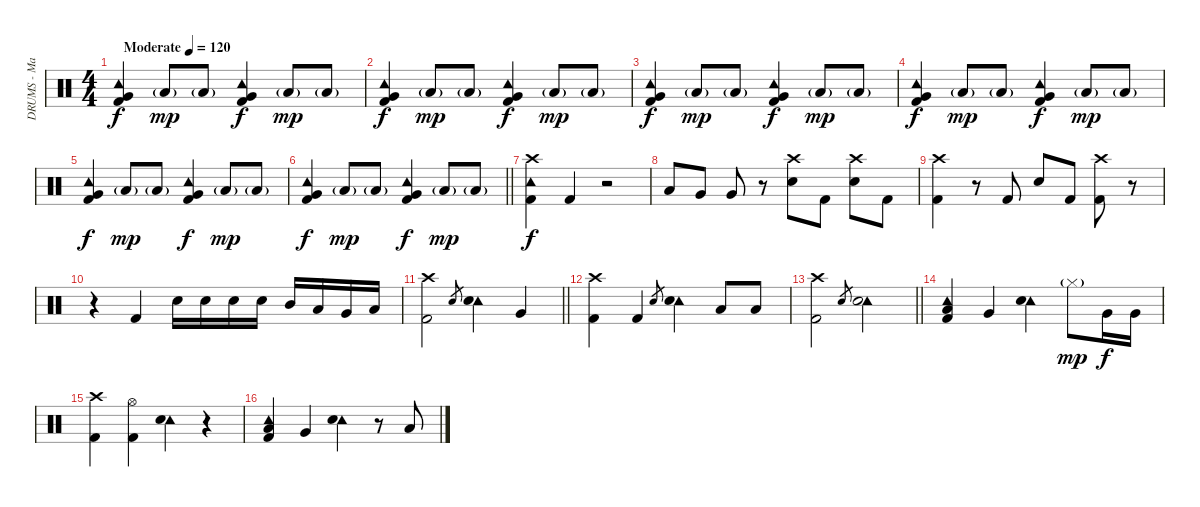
\track ("DRUMS - Mario Duplantier" "DRUMS - Ma") {instrument percussion}
\staff {score}
\articulation defaults
\ts (4 4)
\tempo (120 "Moderate")
\clef neutral
\ks c
("Kick (hit) 2" "Very Low Tom (hit)" "Tambourine (hit)").4{dy f} "Low Floor Tom (hit)"{g}.8{dy mp} "Low Floor Tom (hit)"{g}.8 ("Kick (hit) 2" "Very Low Tom (hit)" "Tambourine (hit)").4{dy f} "Low Floor Tom (hit)"{g}.8{dy mp} "Low Floor Tom (hit)"{g}.8 |
("Kick (hit) 2" "Very Low Tom (hit)" "Tambourine (hit)").4{dy f} "Low Floor Tom (hit)"{g}.8{dy mp} "Low Floor Tom (hit)"{g}.8 ("Kick (hit) 2" "Very Low Tom (hit)" "Tambourine (hit)").4{dy f} "Low Floor Tom (hit)"{g}.8{dy mp} "Low Floor Tom (hit)"{g}.8 |
("Kick (hit) 2" "Very Low Tom (hit)" "Tambourine (hit)").4{dy f} "Low Floor Tom (hit)"{g}.8{dy mp} "Low Floor Tom (hit)"{g}.8 ("Kick (hit) 2" "Very Low Tom (hit)" "Tambourine (hit)").4{dy f} "Low Floor Tom (hit)"{g}.8{dy mp} "Low Floor Tom (hit)"{g}.8 |
("Kick (hit) 2" "Very Low Tom (hit)" "Tambourine (hit)").4{dy f} "Low Floor Tom (hit)"{g}.8{dy mp} "Low Floor Tom (hit)"{g}.8 ("Kick (hit) 2" "Very Low Tom (hit)" "Tambourine (hit)").4{dy f} "Low Floor Tom (hit)"{g}.8{dy mp} "Low Floor Tom (hit)"{g}.8 |
("Kick (hit) 2" "Very Low Tom (hit)" "Tambourine (hit)").4{dy f} "Low Floor Tom (hit)"{g}.8{dy mp} "Low Floor Tom (hit)"{g}.8 ("Kick (hit) 2" "Very Low Tom (hit)" "Tambourine (hit)").4{dy f} "Low Floor Tom (hit)"{g}.8{dy mp} "Low Floor Tom (hit)"{g}.8 |
\barLineRight lightlight
("Kick (hit) 2" "Very Low Tom (hit)" "Tambourine (hit)").4{dy f} "Low Floor Tom (hit)"{g}.8{dy mp} "Low Floor Tom (hit)"{g}.8 ("Kick (hit) 2" "Very Low Tom (hit)" "Tambourine (hit)").4{dy f} "Low Floor Tom (hit)"{g}.8{dy mp} "Low Floor Tom (hit)"{g}.8 |
\section ("" "")
("Kick (hit) 2" "Crash high (hit)" "Tambourine (hit)").4{dy f} "Kick (hit) 2".4 r.2 |
"Low Tom (hit)".8 "Very Low Tom (hit)".8 "Very Low Tom (hit)".8 r.8 ("Crash high (hit)" "Electric Snare (hit)").8 "Kick (hit) 2".8 ("Crash high (hit)" "Electric Snare (hit)").8 "Kick (hit) 2".8 |
("Crash high (hit)" "Kick (hit) 2").4 r.8 "Kick (hit) 2".8 "Electric Snare (hit)".8 "Kick (hit) 2".8 ("Crash high (hit)" "Kick (hit) 2").8 r.8 |
r.4 "Kick (hit) 2".4 "Electric Snare (hit)".16 "Electric Snare (hit)".16 "Electric Snare (hit)".16 "Electric Snare (hit)".16 "Mid Tom (hit)".16 "Low Tom (hit)".16 "Very Low Tom (hit)".16 "Low Floor Tom (hit)".16 |
\barLineRight lightlight
("Crash high (hit)" "Kick (hit) 2").2 "Electric Snare (hit)".8{gr} ("Tambourine (hit)" "Electric Snare (hit)").4 "Very Low Tom (hit)".4 |
("Crash high (hit)" "Kick (hit) 2").4 "Kick (hit) 2".4 "Electric Snare (hit)".8{gr} ("Tambourine (hit)" "Electric Snare (hit)").4 "Low Floor Tom (hit)".8 "Low Floor Tom (hit)".8 |
\barLineRight lightlight
("Crash high (hit)" "Kick (hit) 2").2 "Electric Snare (hit)".8{gr} ("Tambourine (hit)" "Electric Snare (hit)").2 |
("Tambourine (hit)" "Low Tom (hit)" "Kick (hit) 2").4 "Very Low Tom (hit)".4 ("Tambourine (hit)" "Electric Snare (hit)").4 "Hi-Hat (closed)"{g}.8{dy mp} "Very Low Tom (hit)".16{dy f} "Very Low Tom (hit)".16 |
("Crash high (hit)" "Kick (hit) 2").4 ("Hi-Hat (open)" "Kick (hit) 2").4 ("Tambourine (hit)" "Electric Snare (hit)").4 r.4 |
("Tambourine (hit)" "Low Tom (hit)" "Kick (hit) 2").4 "Very Low Tom (hit)".4 ("Tambourine (hit)" "Electric Snare (hit)").4 r.8 "Low Floor Tom (hit)".8
